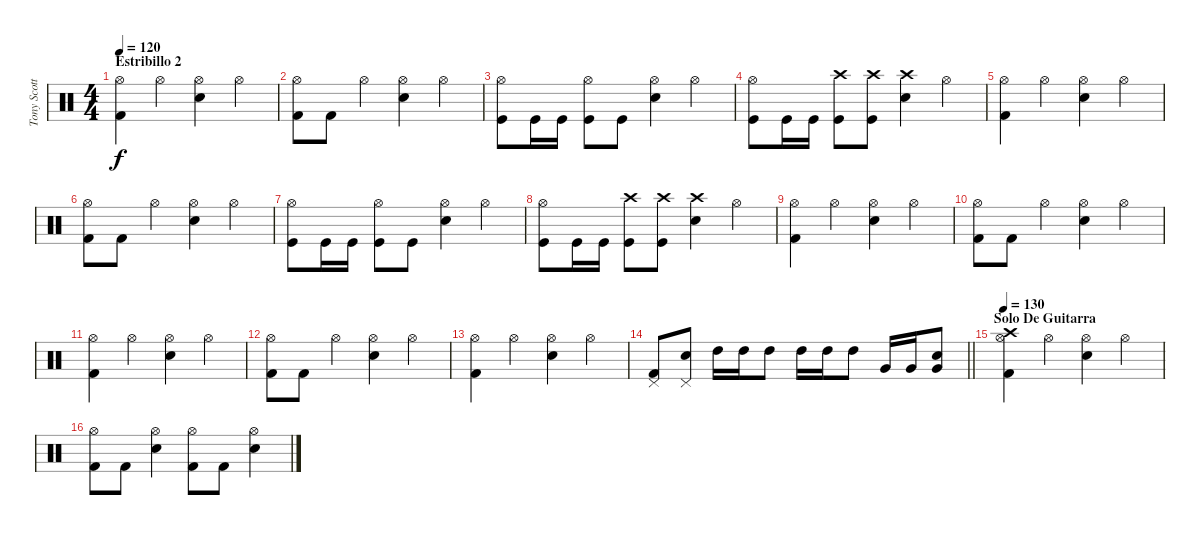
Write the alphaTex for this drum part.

\track ("Tony Scotto" "Tony Scott") {instrument percussion}
\staff {score}
\articulation defaults
\ts (4 4)
\section ("" "Estribillo 2")
\tempo 120
\clef neutral
\ks c
("Hi-Hat (open)" "Kick (hit) 2").4{dy f} "Hi-Hat (open)".4 ("Hi-Hat (open)" "Snare (hit) 2").4 "Hi-Hat (open)".4 |
("Hi-Hat (open)" "Kick (hit) 2").8 "Kick (hit) 2".8 "Hi-Hat (open)".4 ("Hi-Hat (open)" "Snare (hit) 2").4 "Hi-Hat (open)".4 |
("Hi-Hat (open)" "Kick (hit)").8 "Kick (hit)".16 "Kick (hit)".16 ("Hi-Hat (open)" "Kick (hit)").8 "Kick (hit)".8 ("Hi-Hat (open)" "Snare (hit) 2").4 "Hi-Hat (open)".4 |
("Hi-Hat (open)" "Kick (hit)").8 "Kick (hit)".16 "Kick (hit)".16 ("Crash high (hit)" "Kick (hit)").8 ("Crash high (hit)" "Kick (hit)").8 ("Crash high (hit)" "Snare (hit) 2").4 "Hi-Hat (open)".4 |
("Hi-Hat (open)" "Kick (hit) 2").4 "Hi-Hat (open)".4 ("Hi-Hat (open)" "Snare (hit) 2").4 "Hi-Hat (open)".4 |
("Hi-Hat (open)" "Kick (hit) 2").8 "Kick (hit) 2".8 "Hi-Hat (open)".4 ("Hi-Hat (open)" "Snare (hit) 2").4 "Hi-Hat (open)".4 |
("Hi-Hat (open)" "Kick (hit)").8 "Kick (hit)".16 "Kick (hit)".16 ("Hi-Hat (open)" "Kick (hit)").8 "Kick (hit)".8 ("Hi-Hat (open)" "Snare (hit) 2").4 "Hi-Hat (open)".4 |
("Hi-Hat (open)" "Kick (hit)").8 "Kick (hit)".16 "Kick (hit)".16 ("Crash high (hit)" "Kick (hit)").8 ("Crash high (hit)" "Kick (hit)").8 ("Crash high (hit)" "Snare (hit) 2").4 "Hi-Hat (open)".4 |
("Hi-Hat (open)" "Kick (hit) 2").4 "Hi-Hat (open)".4 ("Hi-Hat (open)" "Snare (hit) 2").4 "Hi-Hat (open)".4 |
("Hi-Hat (open)" "Kick (hit) 2").8 "Kick (hit) 2".8 "Hi-Hat (open)".4 ("Hi-Hat (open)" "Snare (hit) 2").4 "Hi-Hat (open)".4 |
("Hi-Hat (open)" "Kick (hit) 2").4 "Hi-Hat (open)".4 ("Hi-Hat (open)" "Snare (hit) 2").4 "Hi-Hat (open)".4 |
("Hi-Hat (open)" "Kick (hit) 2").8 "Kick (hit) 2".8 "Hi-Hat (open)".4 ("Hi-Hat (open)" "Snare (hit) 2").4 "Hi-Hat (open)".4 |
("Hi-Hat (open)" "Kick (hit) 2").4 "Hi-Hat (open)".4 ("Hi-Hat (open)" "Snare (hit) 2").4 "Hi-Hat (open)".4 |
\barLineRight lightlight
("Pedal Hi-Hat (hit)" "Kick (hit) 2").8 ("Pedal Hi-Hat (hit)" "Snare (hit) 2").8 "High Tom (hit)".16 "High Tom (hit)".16 "High Tom (hit)".8 "High Tom (hit)".16 "High Tom (hit)".16 "High Tom (hit)".8 "Very Low Tom (hit)".16 "Very Low Tom (hit)".16 ("Very Low Tom (hit)" "Snare (hit) 2").8 |
\section ("" "Solo De Guitarra")
\tempo 130
("Hi-Hat (open)" "Crash high (hit)" "Kick (hit) 2").4 "Hi-Hat (open)".4 ("Hi-Hat (open)" "Snare (hit) 2").4 "Hi-Hat (open)".4 |
("Hi-Hat (open)" "Kick (hit) 2").8 "Kick (hit) 2".8 ("Hi-Hat (open)" "Snare (hit) 2").4 ("Hi-Hat (open)" "Kick (hit) 2").8 "Kick (hit) 2".8 ("Hi-Hat (open)" "Snare (hit) 2").4
